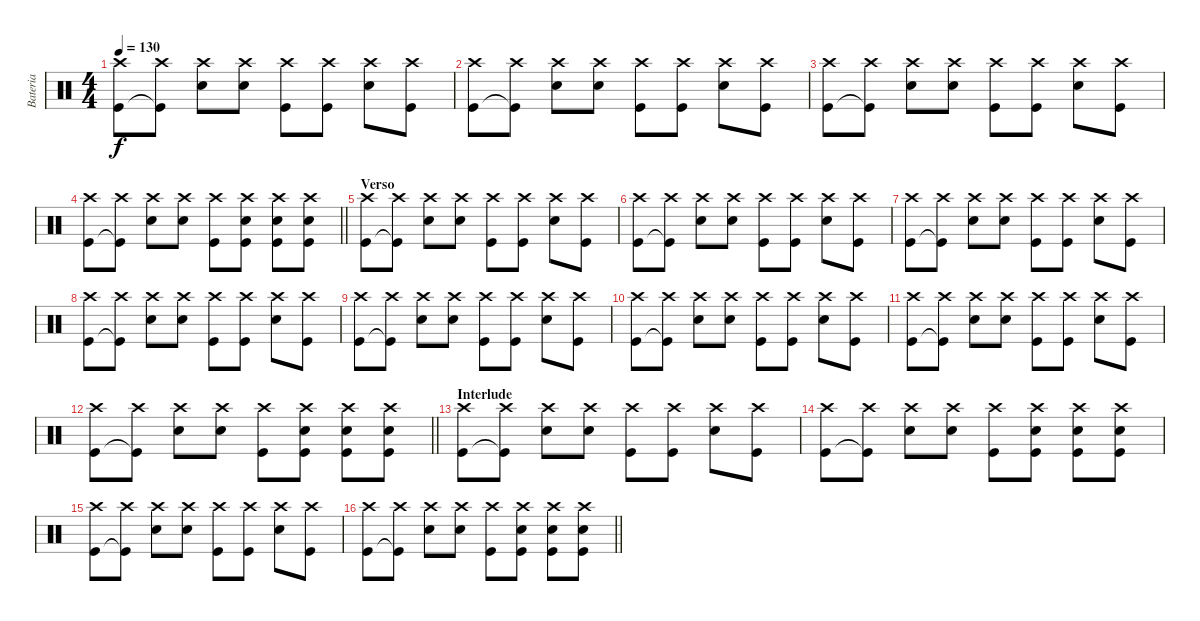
\track ("Bateria" "Bateria") {instrument percussion}
\staff {score}
\articulation defaults
\ts (4 4)
\tempo 130
\clef neutral
\ks c
("Crash high (hit)" "Kick (hit)").8{dy f} ("Crash high (hit)" "Kick (hit)"{t}).8 ("Crash high (hit)" "Snare (hit) 2").8 ("Crash high (hit)" "Snare (hit) 2").8 ("Crash high (hit)" "Kick (hit)").8 ("Crash high (hit)" "Kick (hit)").8 ("Crash high (hit)" "Snare (hit) 2").8 ("Crash high (hit)" "Kick (hit)").8 |
("Crash high (hit)" "Kick (hit)").8 ("Crash high (hit)" "Kick (hit)"{t}).8 ("Crash high (hit)" "Snare (hit) 2").8 ("Crash high (hit)" "Snare (hit) 2").8 ("Crash high (hit)" "Kick (hit)").8 ("Crash high (hit)" "Kick (hit)").8 ("Crash high (hit)" "Snare (hit) 2").8 ("Crash high (hit)" "Kick (hit)").8 |
("Crash high (hit)" "Kick (hit)").8 ("Crash high (hit)" "Kick (hit)"{t}).8 ("Crash high (hit)" "Snare (hit) 2").8 ("Crash high (hit)" "Snare (hit) 2").8 ("Crash high (hit)" "Kick (hit)").8 ("Crash high (hit)" "Kick (hit)").8 ("Crash high (hit)" "Snare (hit) 2").8 ("Crash high (hit)" "Kick (hit)").8 |
\barLineRight lightlight
("Crash high (hit)" "Kick (hit)").8 ("Crash high (hit)" "Kick (hit)"{t}).8 ("Crash high (hit)" "Snare (hit) 2").8 ("Crash high (hit)" "Snare (hit) 2").8 ("Crash high (hit)" "Kick (hit)").8 ("Crash high (hit)" "Snare (hit) 2" "Kick (hit)").8 ("Crash high (hit)" "Snare (hit) 2" "Kick (hit)").8 ("Crash high (hit)" "Snare (hit) 2" "Kick (hit)").8 |
\section ("" "Verso")
("Crash high (hit)" "Kick (hit)").8 ("Crash high (hit)" "Kick (hit)"{t}).8 ("Crash high (hit)" "Snare (hit) 2").8 ("Crash high (hit)" "Snare (hit) 2").8 ("Crash high (hit)" "Kick (hit)").8 ("Crash high (hit)" "Kick (hit)").8 ("Crash high (hit)" "Snare (hit) 2").8 ("Crash high (hit)" "Kick (hit)").8 |
("Crash high (hit)" "Kick (hit)").8 ("Crash high (hit)" "Kick (hit)"{t}).8 ("Crash high (hit)" "Snare (hit) 2").8 ("Crash high (hit)" "Snare (hit) 2").8 ("Crash high (hit)" "Kick (hit)").8 ("Crash high (hit)" "Kick (hit)").8 ("Crash high (hit)" "Snare (hit) 2").8 ("Crash high (hit)" "Kick (hit)").8 |
("Crash high (hit)" "Kick (hit)").8 ("Crash high (hit)" "Kick (hit)"{t}).8 ("Crash high (hit)" "Snare (hit) 2").8 ("Crash high (hit)" "Snare (hit) 2").8 ("Crash high (hit)" "Kick (hit)").8 ("Crash high (hit)" "Kick (hit)").8 ("Crash high (hit)" "Snare (hit) 2").8 ("Crash high (hit)" "Kick (hit)").8 |
("Crash high (hit)" "Kick (hit)").8 ("Crash high (hit)" "Kick (hit)"{t}).8 ("Crash high (hit)" "Snare (hit) 2").8 ("Crash high (hit)" "Snare (hit) 2").8 ("Crash high (hit)" "Kick (hit)").8 ("Crash high (hit)" "Kick (hit)").8 ("Crash high (hit)" "Snare (hit) 2").8 ("Crash high (hit)" "Kick (hit)").8 |
("Crash high (hit)" "Kick (hit)").8 ("Crash high (hit)" "Kick (hit)"{t}).8 ("Crash high (hit)" "Snare (hit) 2").8 ("Crash high (hit)" "Snare (hit) 2").8 ("Crash high (hit)" "Kick (hit)").8 ("Crash high (hit)" "Kick (hit)").8 ("Crash high (hit)" "Snare (hit) 2").8 ("Crash high (hit)" "Kick (hit)").8 |
("Crash high (hit)" "Kick (hit)").8 ("Crash high (hit)" "Kick (hit)"{t}).8 ("Crash high (hit)" "Snare (hit) 2").8 ("Crash high (hit)" "Snare (hit) 2").8 ("Crash high (hit)" "Kick (hit)").8 ("Crash high (hit)" "Kick (hit)").8 ("Crash high (hit)" "Snare (hit) 2").8 ("Crash high (hit)" "Kick (hit)").8 |
("Crash high (hit)" "Kick (hit)").8 ("Crash high (hit)" "Kick (hit)"{t}).8 ("Crash high (hit)" "Snare (hit) 2").8 ("Crash high (hit)" "Snare (hit) 2").8 ("Crash high (hit)" "Kick (hit)").8 ("Crash high (hit)" "Kick (hit)").8 ("Crash high (hit)" "Snare (hit) 2").8 ("Crash high (hit)" "Kick (hit)").8 |
\barLineRight lightlight
("Crash high (hit)" "Kick (hit)").8 ("Crash high (hit)" "Kick (hit)"{t}).8 ("Crash high (hit)" "Snare (hit) 2").8 ("Crash high (hit)" "Snare (hit) 2").8 ("Crash high (hit)" "Kick (hit)").8 ("Crash high (hit)" "Snare (hit) 2" "Kick (hit)").8 ("Crash high (hit)" "Snare (hit) 2" "Kick (hit)").8 ("Crash high (hit)" "Snare (hit) 2" "Kick (hit)").8 |
\section ("" "Interlude")
("Crash high (hit)" "Kick (hit)").8 ("Crash high (hit)" "Kick (hit)"{t}).8 ("Crash high (hit)" "Snare (hit) 2").8 ("Crash high (hit)" "Snare (hit) 2").8 ("Crash high (hit)" "Kick (hit)").8 ("Crash high (hit)" "Kick (hit)").8 ("Crash high (hit)" "Snare (hit) 2").8 ("Crash high (hit)" "Kick (hit)").8 |
("Crash high (hit)" "Kick (hit)").8 ("Crash high (hit)" "Kick (hit)"{t}).8 ("Crash high (hit)" "Snare (hit) 2").8 ("Crash high (hit)" "Snare (hit) 2").8 ("Crash high (hit)" "Kick (hit)").8 ("Crash high (hit)" "Snare (hit) 2" "Kick (hit)").8 ("Crash high (hit)" "Snare (hit) 2" "Kick (hit)").8 ("Crash high (hit)" "Snare (hit) 2" "Kick (hit)").8 |
("Crash high (hit)" "Kick (hit)").8 ("Crash high (hit)" "Kick (hit)"{t}).8 ("Crash high (hit)" "Snare (hit) 2").8 ("Crash high (hit)" "Snare (hit) 2").8 ("Crash high (hit)" "Kick (hit)").8 ("Crash high (hit)" "Kick (hit)").8 ("Crash high (hit)" "Snare (hit) 2").8 ("Crash high (hit)" "Kick (hit)").8 |
\barLineRight lightlight
("Crash high (hit)" "Kick (hit)").8 ("Crash high (hit)" "Kick (hit)"{t}).8 ("Crash high (hit)" "Snare (hit) 2").8 ("Crash high (hit)" "Snare (hit) 2").8 ("Crash high (hit)" "Kick (hit)").8 ("Crash high (hit)" "Snare (hit) 2" "Kick (hit)").8 ("Crash high (hit)" "Snare (hit) 2" "Kick (hit)").8 ("Crash high (hit)" "Snare (hit) 2" "Kick (hit)").8
